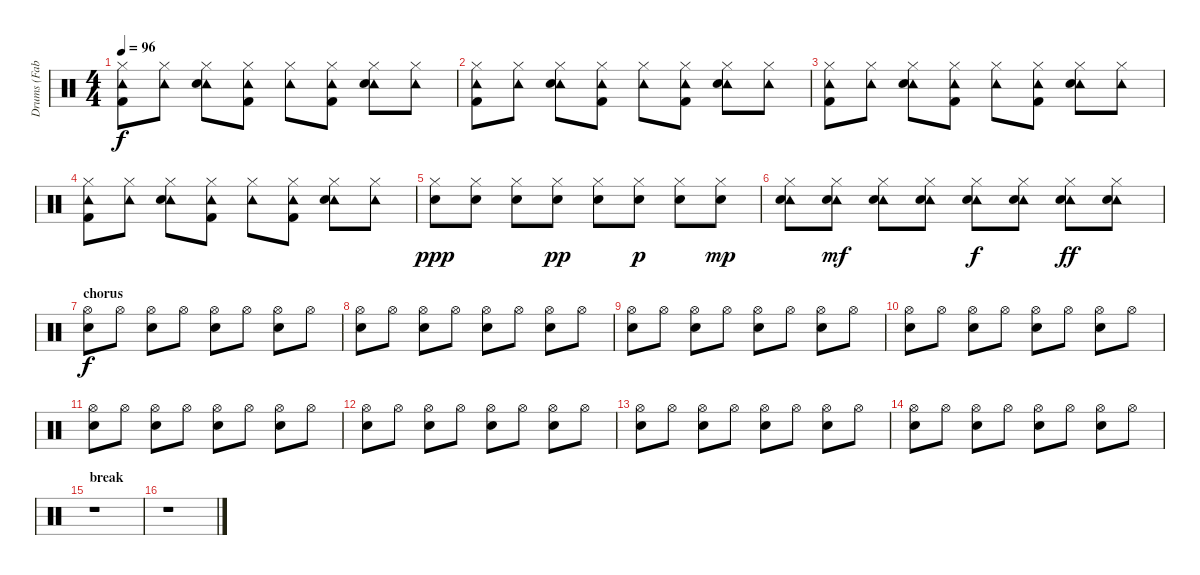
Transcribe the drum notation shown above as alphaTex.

\track ("Drums (Fab Moretti)" "Drums (Fab") {instrument percussion}
\staff {score}
\articulation defaults
\ts (4 4)
\tempo 96
\clef neutral
\ks c
("Tambourine (hit)" "Kick (hit) 2" "Hi-Hat (closed)").8{dy f} ("Tambourine (hit)" "Hi-Hat (closed)").8 ("Tambourine (hit)" "Snare (hit) 2" "Hi-Hat (closed)").8 ("Tambourine (hit)" "Kick (hit) 2" "Hi-Hat (closed)").8 ("Tambourine (hit)" "Hi-Hat (closed)").8 ("Tambourine (hit)" "Kick (hit) 2" "Hi-Hat (closed)").8 ("Tambourine (hit)" "Snare (hit) 2" "Hi-Hat (closed)").8 ("Tambourine (hit)" "Hi-Hat (closed)").8 |
("Tambourine (hit)" "Kick (hit) 2" "Hi-Hat (closed)").8 ("Tambourine (hit)" "Hi-Hat (closed)").8 ("Tambourine (hit)" "Snare (hit) 2" "Hi-Hat (closed)").8 ("Tambourine (hit)" "Kick (hit) 2" "Hi-Hat (closed)").8 ("Tambourine (hit)" "Hi-Hat (closed)").8 ("Tambourine (hit)" "Kick (hit) 2" "Hi-Hat (closed)").8 ("Tambourine (hit)" "Snare (hit) 2" "Hi-Hat (closed)").8 ("Tambourine (hit)" "Hi-Hat (closed)").8 |
("Tambourine (hit)" "Kick (hit) 2" "Hi-Hat (closed)").8 ("Tambourine (hit)" "Hi-Hat (closed)").8 ("Tambourine (hit)" "Snare (hit) 2" "Hi-Hat (closed)").8 ("Tambourine (hit)" "Kick (hit) 2" "Hi-Hat (closed)").8 ("Tambourine (hit)" "Hi-Hat (closed)").8 ("Tambourine (hit)" "Kick (hit) 2" "Hi-Hat (closed)").8 ("Tambourine (hit)" "Snare (hit) 2" "Hi-Hat (closed)").8 ("Tambourine (hit)" "Hi-Hat (closed)").8 |
("Tambourine (hit)" "Kick (hit) 2" "Hi-Hat (closed)").8 ("Tambourine (hit)" "Hi-Hat (closed)").8 ("Tambourine (hit)" "Snare (hit) 2" "Hi-Hat (closed)").8 ("Tambourine (hit)" "Kick (hit) 2" "Hi-Hat (closed)").8 ("Tambourine (hit)" "Hi-Hat (closed)").8 ("Tambourine (hit)" "Kick (hit) 2" "Hi-Hat (closed)").8 ("Tambourine (hit)" "Snare (hit) 2" "Hi-Hat (closed)").8 ("Tambourine (hit)" "Hi-Hat (closed)").8 |
("Snare (hit) 2" "Hi-Hat (closed)").8{dy ppp} ("Snare (hit) 2" "Hi-Hat (closed)").8 ("Snare (hit) 2" "Hi-Hat (closed)").8 ("Snare (hit) 2" "Hi-Hat (closed)").8{dy pp} ("Snare (hit) 2" "Hi-Hat (closed)").8 ("Snare (hit) 2" "Hi-Hat (closed)").8{dy p} ("Snare (hit) 2" "Hi-Hat (closed)").8 ("Snare (hit) 2" "Hi-Hat (closed)").8{dy mp} |
("Tambourine (hit)" "Snare (hit) 2" "Hi-Hat (closed)").8 ("Tambourine (hit)" "Snare (hit) 2" "Hi-Hat (closed)").8{dy mf} ("Tambourine (hit)" "Snare (hit) 2" "Hi-Hat (closed)").8 ("Tambourine (hit)" "Snare (hit) 2" "Hi-Hat (closed)").8 ("Tambourine (hit)" "Snare (hit) 2" "Hi-Hat (closed)").8{dy f} ("Tambourine (hit)" "Snare (hit) 2" "Hi-Hat (closed)").8 ("Tambourine (hit)" "Snare (hit) 2" "Hi-Hat (closed)").8{dy ff} ("Tambourine (hit)" "Snare (hit) 2" "Hi-Hat (closed)").8 |
\section ("" "chorus")
("Hi-Hat (open)" "Snare (hit) 2").8{dy f} "Hi-Hat (open)".8 ("Hi-Hat (open)" "Snare (hit) 2").8 "Hi-Hat (open)".8 ("Hi-Hat (open)" "Snare (hit) 2").8 "Hi-Hat (open)".8 ("Hi-Hat (open)" "Snare (hit) 2").8 "Hi-Hat (open)".8 |
("Hi-Hat (open)" "Snare (hit) 2").8 "Hi-Hat (open)".8 ("Hi-Hat (open)" "Snare (hit) 2").8 "Hi-Hat (open)".8 ("Hi-Hat (open)" "Snare (hit) 2").8 "Hi-Hat (open)".8 ("Hi-Hat (open)" "Snare (hit) 2").8 "Hi-Hat (open)".8 |
("Hi-Hat (open)" "Snare (hit) 2").8 "Hi-Hat (open)".8 ("Hi-Hat (open)" "Snare (hit) 2").8 "Hi-Hat (open)".8 ("Hi-Hat (open)" "Snare (hit) 2").8 "Hi-Hat (open)".8 ("Hi-Hat (open)" "Snare (hit) 2").8 "Hi-Hat (open)".8 |
("Hi-Hat (open)" "Snare (hit) 2").8 "Hi-Hat (open)".8 ("Hi-Hat (open)" "Snare (hit) 2").8 "Hi-Hat (open)".8 ("Hi-Hat (open)" "Snare (hit) 2").8 "Hi-Hat (open)".8 ("Hi-Hat (open)" "Snare (hit) 2").8 "Hi-Hat (open)".8 |
("Hi-Hat (open)" "Snare (hit) 2").8 "Hi-Hat (open)".8 ("Hi-Hat (open)" "Snare (hit) 2").8 "Hi-Hat (open)".8 ("Hi-Hat (open)" "Snare (hit) 2").8 "Hi-Hat (open)".8 ("Hi-Hat (open)" "Snare (hit) 2").8 "Hi-Hat (open)".8 |
("Hi-Hat (open)" "Snare (hit) 2").8 "Hi-Hat (open)".8 ("Hi-Hat (open)" "Snare (hit) 2").8 "Hi-Hat (open)".8 ("Hi-Hat (open)" "Snare (hit) 2").8 "Hi-Hat (open)".8 ("Hi-Hat (open)" "Snare (hit) 2").8 "Hi-Hat (open)".8 |
("Hi-Hat (open)" "Snare (hit) 2").8 "Hi-Hat (open)".8 ("Hi-Hat (open)" "Snare (hit) 2").8 "Hi-Hat (open)".8 ("Hi-Hat (open)" "Snare (hit) 2").8 "Hi-Hat (open)".8 ("Hi-Hat (open)" "Snare (hit) 2").8 "Hi-Hat (open)".8 |
("Hi-Hat (open)" "Snare (hit) 2").8 "Hi-Hat (open)".8 ("Hi-Hat (open)" "Snare (hit) 2").8 "Hi-Hat (open)".8 ("Hi-Hat (open)" "Snare (hit) 2").8 "Hi-Hat (open)".8 ("Hi-Hat (open)" "Snare (hit) 2").8 "Hi-Hat (open)".8 |
\section ("" "break")
r.1 |
r.1
